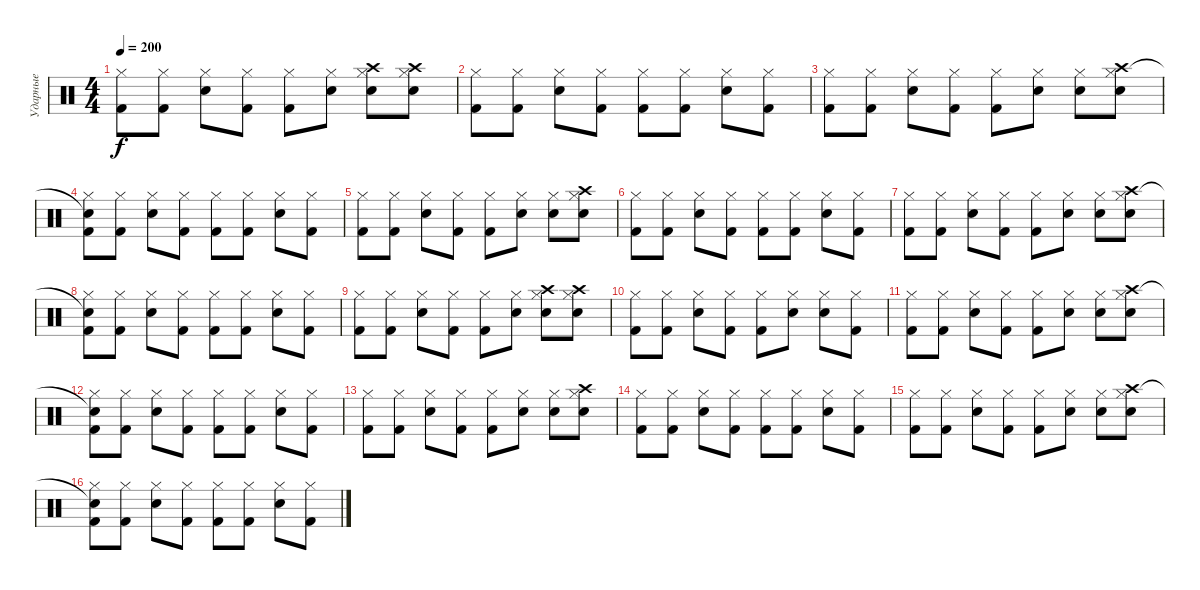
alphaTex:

\track ("Ударные" "Ударные") {instrument percussion}
\staff {score}
\articulation defaults
\ts (4 4)
\tempo 200
\clef neutral
\ks c
("Hi-Hat (closed)" "Kick (hit) 2").8{dy f} ("Hi-Hat (closed)" "Kick (hit) 2").8 ("Hi-Hat (closed)" "Electric Snare (hit)").8 ("Hi-Hat (closed)" "Kick (hit) 2").8 ("Hi-Hat (closed)" "Kick (hit) 2").8 ("Hi-Hat (closed)" "Electric Snare (hit)").8 ("Hi-Hat (closed)" "Crash high (hit)" "Electric Snare (hit)").8 ("Hi-Hat (closed)" "Crash high (hit)" "Electric Snare (hit)").8 |
("Hi-Hat (closed)" "Kick (hit) 2").8 ("Hi-Hat (closed)" "Kick (hit) 2").8 ("Hi-Hat (closed)" "Electric Snare (hit)").8 ("Hi-Hat (closed)" "Kick (hit) 2").8 ("Hi-Hat (closed)" "Kick (hit) 2").8 ("Hi-Hat (closed)" "Kick (hit) 2").8 ("Hi-Hat (closed)" "Electric Snare (hit)").8 ("Hi-Hat (closed)" "Kick (hit) 2").8 |
("Hi-Hat (closed)" "Kick (hit) 2").8 ("Hi-Hat (closed)" "Kick (hit) 2").8 ("Hi-Hat (closed)" "Electric Snare (hit)").8 ("Hi-Hat (closed)" "Kick (hit) 2").8 ("Hi-Hat (closed)" "Kick (hit) 2").8 ("Hi-Hat (closed)" "Electric Snare (hit)").8 ("Hi-Hat (closed)" "Electric Snare (hit)").8 ("Hi-Hat (closed)" "Crash high (hit)" "Electric Snare (hit)").8 |
("Snare (hit)"{t} "Hi-Hat (closed)" "Kick (hit) 2").8 ("Hi-Hat (closed)" "Kick (hit) 2").8 ("Hi-Hat (closed)" "Electric Snare (hit)").8 ("Hi-Hat (closed)" "Kick (hit) 2").8 ("Hi-Hat (closed)" "Kick (hit) 2").8 ("Hi-Hat (closed)" "Kick (hit) 2").8 ("Hi-Hat (closed)" "Electric Snare (hit)").8 ("Hi-Hat (closed)" "Kick (hit) 2").8 |
("Hi-Hat (closed)" "Kick (hit) 2").8 ("Hi-Hat (closed)" "Kick (hit) 2").8 ("Hi-Hat (closed)" "Electric Snare (hit)").8 ("Hi-Hat (closed)" "Kick (hit) 2").8 ("Hi-Hat (closed)" "Kick (hit) 2").8 ("Hi-Hat (closed)" "Electric Snare (hit)").8 ("Hi-Hat (closed)" "Electric Snare (hit)").8 ("Hi-Hat (closed)" "Crash high (hit)" "Electric Snare (hit)").8 |
("Hi-Hat (closed)" "Kick (hit) 2").8 ("Hi-Hat (closed)" "Kick (hit) 2").8 ("Hi-Hat (closed)" "Electric Snare (hit)").8 ("Hi-Hat (closed)" "Kick (hit) 2").8 ("Hi-Hat (closed)" "Kick (hit) 2").8 ("Hi-Hat (closed)" "Kick (hit) 2").8 ("Hi-Hat (closed)" "Electric Snare (hit)").8 ("Hi-Hat (closed)" "Kick (hit) 2").8 |
("Hi-Hat (closed)" "Kick (hit) 2").8 ("Hi-Hat (closed)" "Kick (hit) 2").8 ("Hi-Hat (closed)" "Electric Snare (hit)").8 ("Hi-Hat (closed)" "Kick (hit) 2").8 ("Hi-Hat (closed)" "Kick (hit) 2").8 ("Hi-Hat (closed)" "Electric Snare (hit)").8 ("Hi-Hat (closed)" "Electric Snare (hit)").8 ("Hi-Hat (closed)" "Crash high (hit)" "Electric Snare (hit)").8 |
("Snare (hit)"{t} "Hi-Hat (closed)" "Kick (hit) 2").8 ("Hi-Hat (closed)" "Kick (hit) 2").8 ("Hi-Hat (closed)" "Electric Snare (hit)").8 ("Hi-Hat (closed)" "Kick (hit) 2").8 ("Hi-Hat (closed)" "Kick (hit) 2").8 ("Hi-Hat (closed)" "Kick (hit) 2").8 ("Hi-Hat (closed)" "Electric Snare (hit)").8 ("Hi-Hat (closed)" "Kick (hit) 2").8 |
("Hi-Hat (closed)" "Kick (hit) 2").8 ("Hi-Hat (closed)" "Kick (hit) 2").8 ("Hi-Hat (closed)" "Electric Snare (hit)").8 ("Hi-Hat (closed)" "Kick (hit) 2").8 ("Hi-Hat (closed)" "Kick (hit) 2").8 ("Hi-Hat (closed)" "Electric Snare (hit)").8 ("Hi-Hat (closed)" "Crash high (hit)" "Electric Snare (hit)").8 ("Hi-Hat (closed)" "Crash high (hit)" "Electric Snare (hit)").8 |
("Hi-Hat (closed)" "Kick (hit) 2").8 ("Hi-Hat (closed)" "Kick (hit) 2").8 ("Hi-Hat (closed)" "Electric Snare (hit)").8 ("Hi-Hat (closed)" "Kick (hit) 2").8 ("Hi-Hat (closed)" "Kick (hit) 2").8 ("Hi-Hat (closed)" "Electric Snare (hit)").8 ("Hi-Hat (closed)" "Electric Snare (hit)").8 ("Hi-Hat (closed)" "Kick (hit) 2").8 |
("Hi-Hat (closed)" "Kick (hit) 2").8 ("Hi-Hat (closed)" "Kick (hit) 2").8 ("Hi-Hat (closed)" "Electric Snare (hit)").8 ("Hi-Hat (closed)" "Kick (hit) 2").8 ("Hi-Hat (closed)" "Kick (hit) 2").8 ("Hi-Hat (closed)" "Electric Snare (hit)").8 ("Hi-Hat (closed)" "Electric Snare (hit)").8 ("Hi-Hat (closed)" "Crash high (hit)" "Electric Snare (hit)").8 |
("Snare (hit)"{t} "Hi-Hat (closed)" "Kick (hit) 2").8 ("Hi-Hat (closed)" "Kick (hit) 2").8 ("Hi-Hat (closed)" "Electric Snare (hit)").8 ("Hi-Hat (closed)" "Kick (hit) 2").8 ("Hi-Hat (closed)" "Kick (hit) 2").8 ("Hi-Hat (closed)" "Kick (hit) 2").8 ("Hi-Hat (closed)" "Electric Snare (hit)").8 ("Hi-Hat (closed)" "Kick (hit) 2").8 |
("Hi-Hat (closed)" "Kick (hit) 2").8 ("Hi-Hat (closed)" "Kick (hit) 2").8 ("Hi-Hat (closed)" "Electric Snare (hit)").8 ("Hi-Hat (closed)" "Kick (hit) 2").8 ("Hi-Hat (closed)" "Kick (hit) 2").8 ("Hi-Hat (closed)" "Electric Snare (hit)").8 ("Hi-Hat (closed)" "Electric Snare (hit)").8 ("Hi-Hat (closed)" "Crash high (hit)" "Electric Snare (hit)").8 |
("Hi-Hat (closed)" "Kick (hit) 2").8 ("Hi-Hat (closed)" "Kick (hit) 2").8 ("Hi-Hat (closed)" "Electric Snare (hit)").8 ("Hi-Hat (closed)" "Kick (hit) 2").8 ("Hi-Hat (closed)" "Kick (hit) 2").8 ("Hi-Hat (closed)" "Kick (hit) 2").8 ("Hi-Hat (closed)" "Electric Snare (hit)").8 ("Hi-Hat (closed)" "Kick (hit) 2").8 |
("Hi-Hat (closed)" "Kick (hit) 2").8 ("Hi-Hat (closed)" "Kick (hit) 2").8 ("Hi-Hat (closed)" "Electric Snare (hit)").8 ("Hi-Hat (closed)" "Kick (hit) 2").8 ("Hi-Hat (closed)" "Kick (hit) 2").8 ("Hi-Hat (closed)" "Electric Snare (hit)").8 ("Hi-Hat (closed)" "Electric Snare (hit)").8 ("Hi-Hat (closed)" "Crash high (hit)" "Electric Snare (hit)").8 |
("Snare (hit)"{t} "Hi-Hat (closed)" "Kick (hit) 2").8 ("Hi-Hat (closed)" "Kick (hit) 2").8 ("Hi-Hat (closed)" "Electric Snare (hit)").8 ("Hi-Hat (closed)" "Kick (hit) 2").8 ("Hi-Hat (closed)" "Kick (hit) 2").8 ("Hi-Hat (closed)" "Kick (hit) 2").8 ("Hi-Hat (closed)" "Electric Snare (hit)").8 ("Hi-Hat (closed)" "Kick (hit) 2").8
